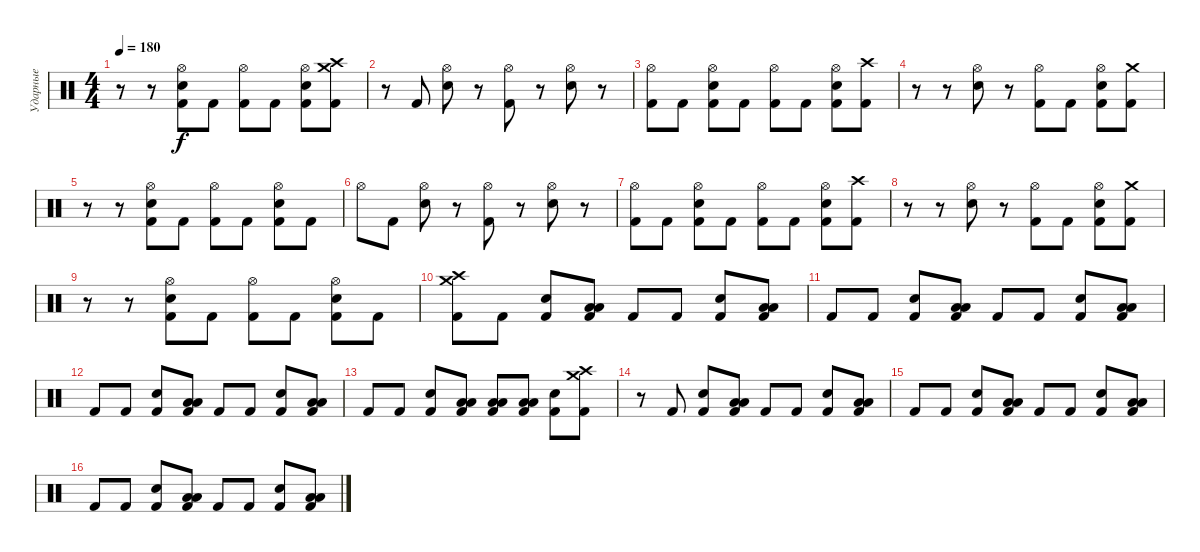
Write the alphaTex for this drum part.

\track ("Ударные" "Ударные") {instrument percussion}
\staff {score}
\articulation defaults
\ts (4 4)
\tempo 180
\clef neutral
\ks c
r.8{dy f} r.8 ("Hi-Hat (open)" "Electric Snare (hit)" "Kick (hit) 2").8 "Kick (hit) 2".8 ("Hi-Hat (open)" "Kick (hit) 2").8 "Kick (hit) 2".8 ("Hi-Hat (open)" "Electric Snare (hit)" "Kick (hit) 2").8 ("Crash medium (hit)" "Crash high (hit)" "Kick (hit) 2").8 |
r.8 "Kick (hit) 2".8 ("Hi-Hat (open)" "Electric Snare (hit)").8 r.8 ("Hi-Hat (open)" "Kick (hit) 2").8 r.8 ("Hi-Hat (open)" "Electric Snare (hit)").8 r.8 |
("Hi-Hat (open)" "Kick (hit) 2").8 "Kick (hit) 2".8 ("Hi-Hat (open)" "Electric Snare (hit)" "Kick (hit) 2").8 "Kick (hit) 2".8 ("Hi-Hat (open)" "Kick (hit) 2").8 "Kick (hit) 2".8 ("Hi-Hat (open)" "Electric Snare (hit)" "Kick (hit) 2").8 ("Crash high (hit)" "Kick (hit) 2").8 |
r.8 r.8 ("Hi-Hat (open)" "Electric Snare (hit)").8 r.8 ("Hi-Hat (open)" "Kick (hit) 2").8 "Kick (hit) 2".8 ("Hi-Hat (open)" "Electric Snare (hit)" "Kick (hit) 2").8 ("Crash medium (hit)" "Kick (hit) 2").8 |
r.8 r.8 ("Hi-Hat (open)" "Electric Snare (hit)" "Kick (hit) 2").8 "Kick (hit) 2".8 ("Hi-Hat (open)" "Kick (hit) 2").8 "Kick (hit) 2".8 ("Hi-Hat (open)" "Electric Snare (hit)" "Kick (hit) 2").8 "Kick (hit) 2".8 |
"Hi-Hat (open)".8 "Kick (hit) 2".8 ("Hi-Hat (open)" "Electric Snare (hit)").8 r.8 ("Hi-Hat (open)" "Kick (hit) 2").8 r.8 ("Hi-Hat (open)" "Electric Snare (hit)").8 r.8 |
("Hi-Hat (open)" "Kick (hit) 2").8 "Kick (hit) 2".8 ("Hi-Hat (open)" "Electric Snare (hit)" "Kick (hit) 2").8 "Kick (hit) 2".8 ("Hi-Hat (open)" "Kick (hit) 2").8 "Kick (hit) 2".8 ("Hi-Hat (open)" "Electric Snare (hit)" "Kick (hit) 2").8 ("Crash high (hit)" "Kick (hit) 2").8 |
r.8 r.8 ("Hi-Hat (open)" "Electric Snare (hit)").8 r.8 ("Hi-Hat (open)" "Kick (hit) 2").8 "Kick (hit) 2".8 ("Hi-Hat (open)" "Electric Snare (hit)" "Kick (hit) 2").8 ("Crash medium (hit)" "Kick (hit) 2").8 |
r.8 r.8 ("Hi-Hat (open)" "Electric Snare (hit)" "Kick (hit) 2").8 "Kick (hit) 2".8 ("Hi-Hat (open)" "Kick (hit) 2").8 "Kick (hit) 2".8 ("Hi-Hat (open)" "Electric Snare (hit)" "Kick (hit) 2").8 "Kick (hit) 2".8 |
("Crash medium (hit)" "Crash high (hit)" "Kick (hit) 2").8 "Kick (hit) 2".8 ("Electric Snare (hit)" "Kick (hit) 2").8 ("Low Tom (hit)" "Low Floor Tom (hit)" "Kick (hit) 2").8 "Kick (hit) 2".8 "Kick (hit) 2".8 ("Electric Snare (hit)" "Kick (hit) 2").8 ("Low Tom (hit)" "Low Floor Tom (hit)" "Kick (hit) 2").8 |
"Kick (hit) 2".8 "Kick (hit) 2".8 ("Electric Snare (hit)" "Kick (hit) 2").8 ("Low Tom (hit)" "Low Floor Tom (hit)" "Kick (hit) 2").8 "Kick (hit) 2".8 "Kick (hit) 2".8 ("Electric Snare (hit)" "Kick (hit) 2").8 ("Low Tom (hit)" "Low Floor Tom (hit)" "Kick (hit) 2").8 |
"Kick (hit) 2".8 "Kick (hit) 2".8 ("Electric Snare (hit)" "Kick (hit) 2").8 ("Low Tom (hit)" "Low Floor Tom (hit)" "Kick (hit) 2").8 "Kick (hit) 2".8 "Kick (hit) 2".8 ("Electric Snare (hit)" "Kick (hit) 2").8 ("Low Tom (hit)" "Low Floor Tom (hit)" "Kick (hit) 2").8 |
"Kick (hit) 2".8 "Kick (hit) 2".8 ("Electric Snare (hit)" "Kick (hit) 2").8 ("Low Tom (hit)" "Low Floor Tom (hit)" "Kick (hit) 2").8 ("Low Tom (hit)" "Low Floor Tom (hit)" "Kick (hit) 2").8 ("Low Tom (hit)" "Low Floor Tom (hit)" "Kick (hit) 2").8 ("Electric Snare (hit)" "Kick (hit) 2").8 ("Crash medium (hit)" "Crash high (hit)" "Kick (hit) 2").8 |
r.8 "Kick (hit) 2".8 ("Electric Snare (hit)" "Kick (hit) 2").8 ("Low Tom (hit)" "Low Floor Tom (hit)" "Kick (hit) 2").8 "Kick (hit) 2".8 "Kick (hit) 2".8 ("Electric Snare (hit)" "Kick (hit) 2").8 ("Low Tom (hit)" "Low Floor Tom (hit)" "Kick (hit) 2").8 |
"Kick (hit) 2".8 "Kick (hit) 2".8 ("Electric Snare (hit)" "Kick (hit) 2").8 ("Low Tom (hit)" "Low Floor Tom (hit)" "Kick (hit) 2").8 "Kick (hit) 2".8 "Kick (hit) 2".8 ("Electric Snare (hit)" "Kick (hit) 2").8 ("Low Tom (hit)" "Low Floor Tom (hit)" "Kick (hit) 2").8 |
"Kick (hit) 2".8 "Kick (hit) 2".8 ("Electric Snare (hit)" "Kick (hit) 2").8 ("Low Tom (hit)" "Low Floor Tom (hit)" "Kick (hit) 2").8 "Kick (hit) 2".8 "Kick (hit) 2".8 ("Electric Snare (hit)" "Kick (hit) 2").8 ("Low Tom (hit)" "Low Floor Tom (hit)" "Kick (hit) 2").8
